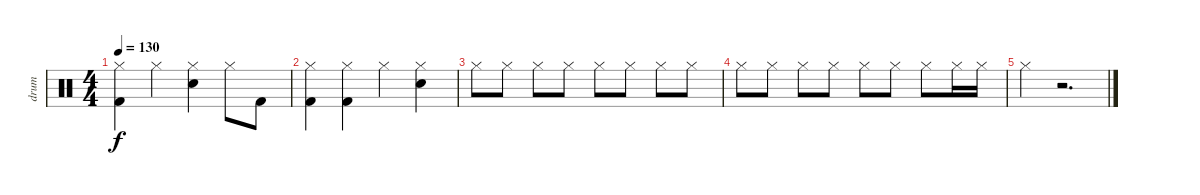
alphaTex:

\track ("drum" "drum") {instrument percussion}
\staff {score}
\articulation defaults
\ts (4 4)
\tempo 130
\clef neutral
\ks c
("Hi-Hat (closed)" "Kick (hit) 2").4{dy f} "Hi-Hat (closed)".4 ("Hi-Hat (closed)" "Snare (hit) 2").4 "Hi-Hat (closed)".8 "Kick (hit) 2".8 |
("Hi-Hat (closed)" "Kick (hit) 2").4 ("Hi-Hat (closed)" "Kick (hit) 2").4 "Hi-Hat (closed)".4 ("Hi-Hat (closed)" "Snare (hit) 2").4 |
"Hi-Hat (closed)".8 "Hi-Hat (closed)".8 "Hi-Hat (closed)".8 "Hi-Hat (closed)".8 "Hi-Hat (closed)".8 "Hi-Hat (closed)".8 "Hi-Hat (closed)".8 "Hi-Hat (closed)".8 |
"Hi-Hat (closed)".8 "Hi-Hat (closed)".8 "Hi-Hat (closed)".8 "Hi-Hat (closed)".8 "Hi-Hat (closed)".8 "Hi-Hat (closed)".8 "Hi-Hat (closed)".8 "Hi-Hat (closed)".16 "Hi-Hat (closed)".16 |
"Hi-Hat (closed)".4 r.2{d}
